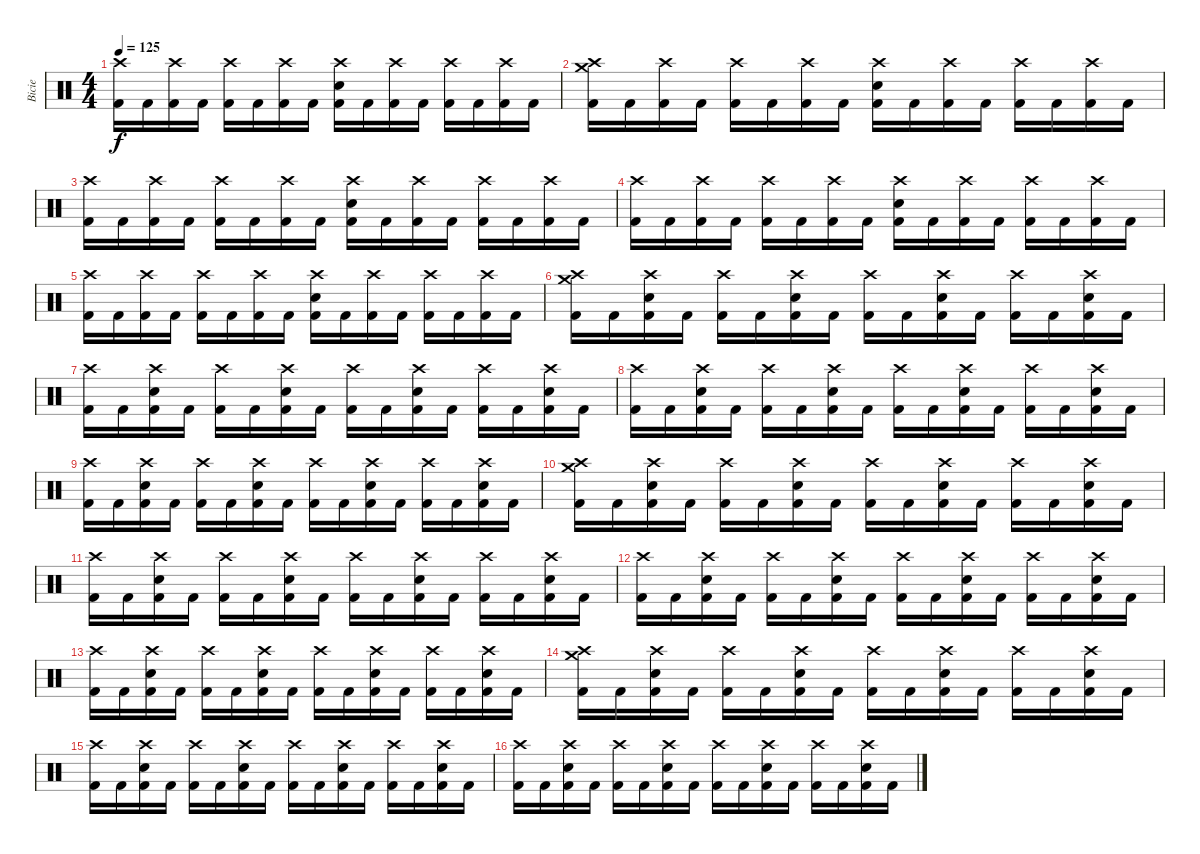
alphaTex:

\track ("Bicie" "Bicie") {instrument percussion}
\staff {score}
\articulation defaults
\ts (4 4)
\tempo 125
\clef neutral
\ks c
("Crash high (hit)" "Kick (hit) 2").16{dy f} "Kick (hit) 2".16 ("Crash high (hit)" "Kick (hit) 2").16 "Kick (hit) 2".16 ("Crash high (hit)" "Kick (hit) 2").16 "Kick (hit) 2".16 ("Crash high (hit)" "Kick (hit) 2").16 "Kick (hit) 2".16 ("Crash high (hit)" "Snare (hit) 2" "Kick (hit) 2").16 "Kick (hit) 2".16 ("Crash high (hit)" "Kick (hit) 2").16 "Kick (hit) 2".16 ("Crash high (hit)" "Kick (hit) 2").16 "Kick (hit) 2".16 ("Crash high (hit)" "Kick (hit) 2").16 "Kick (hit) 2".16 |
("Crash medium (hit)" "Crash high (hit)" "Kick (hit) 2").16 "Kick (hit) 2".16 ("Crash high (hit)" "Kick (hit) 2").16 "Kick (hit) 2".16 ("Crash high (hit)" "Kick (hit) 2").16 "Kick (hit) 2".16 ("Crash high (hit)" "Kick (hit) 2").16 "Kick (hit) 2".16 ("Crash high (hit)" "Snare (hit) 2" "Kick (hit) 2").16 "Kick (hit) 2".16 ("Crash high (hit)" "Kick (hit) 2").16 "Kick (hit) 2".16 ("Crash high (hit)" "Kick (hit) 2").16 "Kick (hit) 2".16 ("Crash high (hit)" "Kick (hit) 2").16 "Kick (hit) 2".16 |
("Crash high (hit)" "Kick (hit) 2").16 "Kick (hit) 2".16 ("Crash high (hit)" "Kick (hit) 2").16 "Kick (hit) 2".16 ("Crash high (hit)" "Kick (hit) 2").16 "Kick (hit) 2".16 ("Crash high (hit)" "Kick (hit) 2").16 "Kick (hit) 2".16 ("Crash high (hit)" "Snare (hit) 2" "Kick (hit) 2").16 "Kick (hit) 2".16 ("Crash high (hit)" "Kick (hit) 2").16 "Kick (hit) 2".16 ("Crash high (hit)" "Kick (hit) 2").16 "Kick (hit) 2".16 ("Crash high (hit)" "Kick (hit) 2").16 "Kick (hit) 2".16 |
("Crash high (hit)" "Kick (hit) 2").16 "Kick (hit) 2".16 ("Crash high (hit)" "Kick (hit) 2").16 "Kick (hit) 2".16 ("Crash high (hit)" "Kick (hit) 2").16 "Kick (hit) 2".16 ("Crash high (hit)" "Kick (hit) 2").16 "Kick (hit) 2".16 ("Crash high (hit)" "Snare (hit) 2" "Kick (hit) 2").16 "Kick (hit) 2".16 ("Crash high (hit)" "Kick (hit) 2").16 "Kick (hit) 2".16 ("Crash high (hit)" "Kick (hit) 2").16 "Kick (hit) 2".16 ("Crash high (hit)" "Kick (hit) 2").16 "Kick (hit) 2".16 |
("Crash high (hit)" "Kick (hit) 2").16 "Kick (hit) 2".16 ("Crash high (hit)" "Kick (hit) 2").16 "Kick (hit) 2".16 ("Crash high (hit)" "Kick (hit) 2").16 "Kick (hit) 2".16 ("Crash high (hit)" "Kick (hit) 2").16 "Kick (hit) 2".16 ("Crash high (hit)" "Snare (hit) 2" "Kick (hit) 2").16 "Kick (hit) 2".16 ("Crash high (hit)" "Kick (hit) 2").16 "Kick (hit) 2".16 ("Crash high (hit)" "Kick (hit) 2").16 "Kick (hit) 2".16 ("Crash high (hit)" "Kick (hit) 2").16 "Kick (hit) 2".16 |
("Crash high (hit)" "Crash medium (hit)" "Kick (hit) 2").16 "Kick (hit) 2".16 ("Crash high (hit)" "Snare (hit) 2" "Kick (hit) 2").16 "Kick (hit) 2".16 ("Crash high (hit)" "Kick (hit) 2").16 "Kick (hit) 2".16 ("Crash high (hit)" "Snare (hit) 2" "Kick (hit) 2").16 "Kick (hit) 2".16 ("Crash high (hit)" "Kick (hit) 2").16 "Kick (hit) 2".16 ("Crash high (hit)" "Snare (hit) 2" "Kick (hit) 2").16 "Kick (hit) 2".16 ("Crash high (hit)" "Kick (hit) 2").16 "Kick (hit) 2".16 ("Crash high (hit)" "Snare (hit) 2" "Kick (hit) 2").16 "Kick (hit) 2".16 |
("Crash high (hit)" "Kick (hit) 2").16 "Kick (hit) 2".16 ("Crash high (hit)" "Snare (hit) 2" "Kick (hit) 2").16 "Kick (hit) 2".16 ("Crash high (hit)" "Kick (hit) 2").16 "Kick (hit) 2".16 ("Crash high (hit)" "Snare (hit) 2" "Kick (hit) 2").16 "Kick (hit) 2".16 ("Crash high (hit)" "Kick (hit) 2").16 "Kick (hit) 2".16 ("Crash high (hit)" "Snare (hit) 2" "Kick (hit) 2").16 "Kick (hit) 2".16 ("Crash high (hit)" "Kick (hit) 2").16 "Kick (hit) 2".16 ("Crash high (hit)" "Snare (hit) 2" "Kick (hit) 2").16 "Kick (hit) 2".16 |
("Crash high (hit)" "Kick (hit) 2").16 "Kick (hit) 2".16 ("Crash high (hit)" "Snare (hit) 2" "Kick (hit) 2").16 "Kick (hit) 2".16 ("Crash high (hit)" "Kick (hit) 2").16 "Kick (hit) 2".16 ("Crash high (hit)" "Snare (hit) 2" "Kick (hit) 2").16 "Kick (hit) 2".16 ("Crash high (hit)" "Kick (hit) 2").16 "Kick (hit) 2".16 ("Crash high (hit)" "Snare (hit) 2" "Kick (hit) 2").16 "Kick (hit) 2".16 ("Crash high (hit)" "Kick (hit) 2").16 "Kick (hit) 2".16 ("Crash high (hit)" "Snare (hit) 2" "Kick (hit) 2").16 "Kick (hit) 2".16 |
("Crash high (hit)" "Kick (hit) 2").16 "Kick (hit) 2".16 ("Crash high (hit)" "Snare (hit) 2" "Kick (hit) 2").16 "Kick (hit) 2".16 ("Crash high (hit)" "Kick (hit) 2").16 "Kick (hit) 2".16 ("Crash high (hit)" "Snare (hit) 2" "Kick (hit) 2").16 "Kick (hit) 2".16 ("Crash high (hit)" "Kick (hit) 2").16 "Kick (hit) 2".16 ("Crash high (hit)" "Snare (hit) 2" "Kick (hit) 2").16 "Kick (hit) 2".16 ("Crash high (hit)" "Kick (hit) 2").16 "Kick (hit) 2".16 ("Crash high (hit)" "Snare (hit) 2" "Kick (hit) 2").16 "Kick (hit) 2".16 |
("Crash high (hit)" "Crash medium (hit)" "Kick (hit) 2").16 "Kick (hit) 2".16 ("Crash high (hit)" "Snare (hit) 2" "Kick (hit) 2").16 "Kick (hit) 2".16 ("Crash high (hit)" "Kick (hit) 2").16 "Kick (hit) 2".16 ("Crash high (hit)" "Snare (hit) 2" "Kick (hit) 2").16 "Kick (hit) 2".16 ("Crash high (hit)" "Kick (hit) 2").16 "Kick (hit) 2".16 ("Crash high (hit)" "Snare (hit) 2" "Kick (hit) 2").16 "Kick (hit) 2".16 ("Crash high (hit)" "Kick (hit) 2").16 "Kick (hit) 2".16 ("Crash high (hit)" "Snare (hit) 2" "Kick (hit) 2").16 "Kick (hit) 2".16 |
("Crash high (hit)" "Kick (hit) 2").16 "Kick (hit) 2".16 ("Crash high (hit)" "Snare (hit) 2" "Kick (hit) 2").16 "Kick (hit) 2".16 ("Crash high (hit)" "Kick (hit) 2").16 "Kick (hit) 2".16 ("Crash high (hit)" "Snare (hit) 2" "Kick (hit) 2").16 "Kick (hit) 2".16 ("Crash high (hit)" "Kick (hit) 2").16 "Kick (hit) 2".16 ("Crash high (hit)" "Snare (hit) 2" "Kick (hit) 2").16 "Kick (hit) 2".16 ("Crash high (hit)" "Kick (hit) 2").16 "Kick (hit) 2".16 ("Crash high (hit)" "Snare (hit) 2" "Kick (hit) 2").16 "Kick (hit) 2".16 |
("Crash high (hit)" "Kick (hit) 2").16 "Kick (hit) 2".16 ("Crash high (hit)" "Snare (hit) 2" "Kick (hit) 2").16 "Kick (hit) 2".16 ("Crash high (hit)" "Kick (hit) 2").16 "Kick (hit) 2".16 ("Crash high (hit)" "Snare (hit) 2" "Kick (hit) 2").16 "Kick (hit) 2".16 ("Crash high (hit)" "Kick (hit) 2").16 "Kick (hit) 2".16 ("Crash high (hit)" "Snare (hit) 2" "Kick (hit) 2").16 "Kick (hit) 2".16 ("Crash high (hit)" "Kick (hit) 2").16 "Kick (hit) 2".16 ("Crash high (hit)" "Snare (hit) 2" "Kick (hit) 2").16 "Kick (hit) 2".16 |
("Crash high (hit)" "Kick (hit) 2").16 "Kick (hit) 2".16 ("Crash high (hit)" "Snare (hit) 2" "Kick (hit) 2").16 "Kick (hit) 2".16 ("Crash high (hit)" "Kick (hit) 2").16 "Kick (hit) 2".16 ("Crash high (hit)" "Snare (hit) 2" "Kick (hit) 2").16 "Kick (hit) 2".16 ("Crash high (hit)" "Kick (hit) 2").16 "Kick (hit) 2".16 ("Crash high (hit)" "Snare (hit) 2" "Kick (hit) 2").16 "Kick (hit) 2".16 ("Crash high (hit)" "Kick (hit) 2").16 "Kick (hit) 2".16 ("Crash high (hit)" "Snare (hit) 2" "Kick (hit) 2").16 "Kick (hit) 2".16 |
("Crash high (hit)" "Crash medium (hit)" "Kick (hit) 2").16 "Kick (hit) 2".16 ("Crash high (hit)" "Snare (hit) 2" "Kick (hit) 2").16 "Kick (hit) 2".16 ("Crash high (hit)" "Kick (hit) 2").16 "Kick (hit) 2".16 ("Crash high (hit)" "Snare (hit) 2" "Kick (hit) 2").16 "Kick (hit) 2".16 ("Crash high (hit)" "Kick (hit) 2").16 "Kick (hit) 2".16 ("Crash high (hit)" "Snare (hit) 2" "Kick (hit) 2").16 "Kick (hit) 2".16 ("Crash high (hit)" "Kick (hit) 2").16 "Kick (hit) 2".16 ("Crash high (hit)" "Snare (hit) 2" "Kick (hit) 2").16 "Kick (hit) 2".16 |
("Crash high (hit)" "Kick (hit) 2").16 "Kick (hit) 2".16 ("Crash high (hit)" "Snare (hit) 2" "Kick (hit) 2").16 "Kick (hit) 2".16 ("Crash high (hit)" "Kick (hit) 2").16 "Kick (hit) 2".16 ("Crash high (hit)" "Snare (hit) 2" "Kick (hit) 2").16 "Kick (hit) 2".16 ("Crash high (hit)" "Kick (hit) 2").16 "Kick (hit) 2".16 ("Crash high (hit)" "Snare (hit) 2" "Kick (hit) 2").16 "Kick (hit) 2".16 ("Crash high (hit)" "Kick (hit) 2").16 "Kick (hit) 2".16 ("Crash high (hit)" "Snare (hit) 2" "Kick (hit) 2").16 "Kick (hit) 2".16 |
("Crash high (hit)" "Kick (hit) 2").16 "Kick (hit) 2".16 ("Crash high (hit)" "Snare (hit) 2" "Kick (hit) 2").16 "Kick (hit) 2".16 ("Crash high (hit)" "Kick (hit) 2").16 "Kick (hit) 2".16 ("Crash high (hit)" "Snare (hit) 2" "Kick (hit) 2").16 "Kick (hit) 2".16 ("Crash high (hit)" "Kick (hit) 2").16 "Kick (hit) 2".16 ("Crash high (hit)" "Snare (hit) 2" "Kick (hit) 2").16 "Kick (hit) 2".16 ("Crash high (hit)" "Kick (hit) 2").16 "Kick (hit) 2".16 ("Crash high (hit)" "Snare (hit) 2" "Kick (hit) 2").16 "Kick (hit) 2".16
